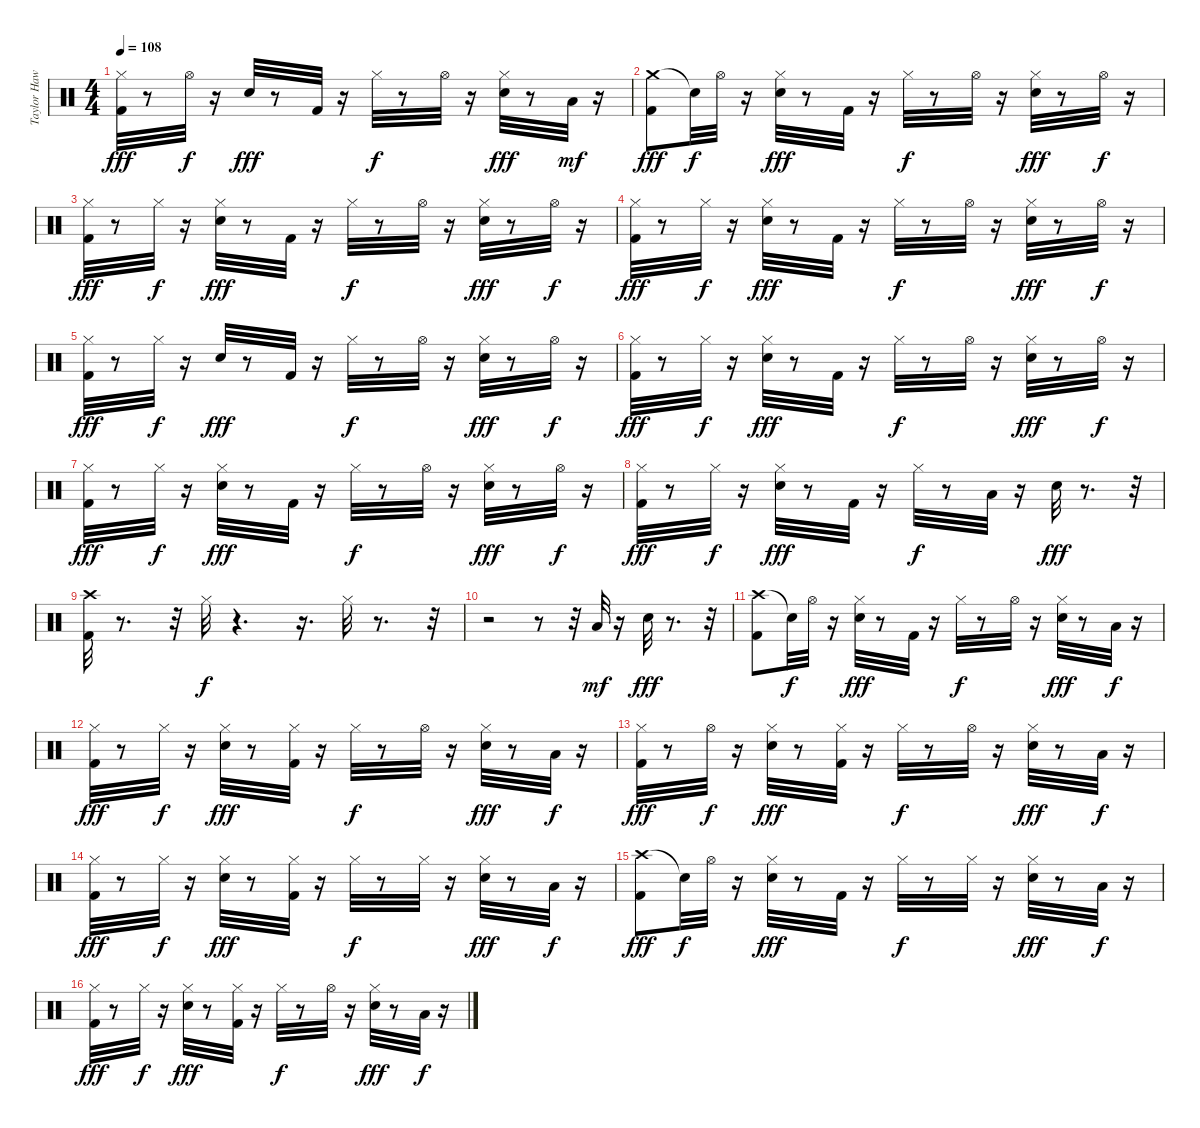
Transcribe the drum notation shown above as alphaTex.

\track ("Taylor Hawkins" "Taylor Haw") {instrument percussion}
\staff {score}
\articulation defaults
\ts (4 4)
\tempo 108
\clef neutral
\ks c
("Hi-Hat (closed)" "Kick (hit) 2").32{dy fff} r.8 "Hi-Hat (open)".32{dy f} r.16 "Snare (hit) 2".32{dy fff} r.8 "Kick (hit) 2".32 r.16 "Hi-Hat (closed)".32{dy f} r.8 "Hi-Hat (open)".32 r.16 ("Hi-Hat (closed)" "Snare (hit) 2").32{dy fff} r.8 "Low Floor Tom (hit)".32{dy mf} r.16 |
("Crash medium (hit)" "Kick (hit) 2").8{dy fff} "Snare (hit)"{t}.32{dy f} "Hi-Hat (open)".32 r.16 ("Hi-Hat (closed)" "Snare (hit) 2").32{dy fff} r.8 "Kick (hit) 2".32 r.16 "Hi-Hat (closed)".32{dy f} r.8 "Hi-Hat (open)".32 r.16 ("Hi-Hat (closed)" "Snare (hit) 2").32{dy fff} r.8 "Hi-Hat (open)".32{dy f} r.16 |
("Hi-Hat (closed)" "Kick (hit) 2").32{dy fff} r.8 "Hi-Hat (closed)".32{dy f} r.16 ("Hi-Hat (closed)" "Snare (hit) 2").32{dy fff} r.8 "Kick (hit) 2".32 r.16 "Hi-Hat (closed)".32{dy f} r.8 "Hi-Hat (open)".32 r.16 ("Hi-Hat (closed)" "Snare (hit) 2").32{dy fff} r.8 "Hi-Hat (open)".32{dy f} r.16 |
("Hi-Hat (closed)" "Kick (hit) 2").32{dy fff} r.8 "Hi-Hat (closed)".32{dy f} r.16 ("Hi-Hat (closed)" "Snare (hit) 2").32{dy fff} r.8 "Kick (hit) 2".32 r.16 "Hi-Hat (closed)".32{dy f} r.8 "Hi-Hat (open)".32 r.16 ("Hi-Hat (closed)" "Snare (hit) 2").32{dy fff} r.8 "Hi-Hat (open)".32{dy f} r.16 |
("Hi-Hat (closed)" "Kick (hit) 2").32{dy fff} r.8 "Hi-Hat (closed)".32{dy f} r.16 "Snare (hit) 2".32{dy fff} r.8 "Kick (hit) 2".32 r.16 "Hi-Hat (closed)".32{dy f} r.8 "Hi-Hat (open)".32 r.16 ("Hi-Hat (closed)" "Snare (hit) 2").32{dy fff} r.8 "Hi-Hat (open)".32{dy f} r.16 |
("Hi-Hat (closed)" "Kick (hit) 2").32{dy fff} r.8 "Hi-Hat (closed)".32{dy f} r.16 ("Hi-Hat (closed)" "Snare (hit) 2").32{dy fff} r.8 "Kick (hit) 2".32 r.16 "Hi-Hat (closed)".32{dy f} r.8 "Hi-Hat (open)".32 r.16 ("Hi-Hat (closed)" "Snare (hit) 2").32{dy fff} r.8 "Hi-Hat (open)".32{dy f} r.16 |
("Hi-Hat (closed)" "Kick (hit) 2").32{dy fff} r.8 "Hi-Hat (closed)".32{dy f} r.16 ("Hi-Hat (closed)" "Snare (hit) 2").32{dy fff} r.8 "Kick (hit) 2".32 r.16 "Hi-Hat (closed)".32{dy f} r.8 "Hi-Hat (open)".32 r.16 ("Hi-Hat (closed)" "Snare (hit) 2").32{dy fff} r.8 "Hi-Hat (open)".32{dy f} r.16 |
("Hi-Hat (closed)" "Kick (hit) 2").32{dy fff} r.8 "Hi-Hat (closed)".32{dy f} r.16 ("Hi-Hat (closed)" "Snare (hit) 2").32{dy fff} r.8 "Kick (hit) 2".32 r.16 "Hi-Hat (closed)".32{dy f} r.8 "Low Tom (hit)".32 r.16 "Snare (hit) 2".32{dy fff} r.8{d} r.32 |
("Crash high (hit)" "Kick (hit) 2").32 r.8{d} r.32 "Hi-Hat (closed)".32{dy f} r.4{d} r.16{d} "Hi-Hat (closed)".32 r.8{d} r.32 |
r.2 r.8 r.32 "Low Floor Tom (hit)".32{dy mf} r.16 "Snare (hit) 2".32{dy fff} r.8{d} r.32 |
("Crash high (hit)" "Kick (hit) 2").8 "Snare (hit)"{t}.32{dy f} "Hi-Hat (open)".32 r.16 ("Hi-Hat (closed)" "Snare (hit) 2").32{dy fff} r.8 "Kick (hit) 2".32 r.16 "Hi-Hat (closed)".32{dy f} r.8 "Hi-Hat (open)".32 r.16 ("Hi-Hat (closed)" "Snare (hit) 2").32{dy fff} r.8 "Low Tom (hit)".32{dy f} r.16 |
("Hi-Hat (closed)" "Kick (hit) 2").32{dy fff} r.8 "Hi-Hat (closed)".32{dy f} r.16 ("Hi-Hat (closed)" "Snare (hit) 2").32{dy fff} r.8 ("Hi-Hat (closed)" "Kick (hit) 2").32 r.16 "Hi-Hat (closed)".32{dy f} r.8 "Hi-Hat (open)".32 r.16 ("Hi-Hat (closed)" "Snare (hit) 2").32{dy fff} r.8 "Low Floor Tom (hit)".32{dy f} r.16 |
("Hi-Hat (closed)" "Kick (hit) 2").32{dy fff} r.8 "Hi-Hat (open)".32{dy f} r.16 ("Hi-Hat (closed)" "Snare (hit) 2").32{dy fff} r.8 ("Hi-Hat (closed)" "Kick (hit) 2").32 r.16 "Hi-Hat (closed)".32{dy f} r.8 "Hi-Hat (open)".32 r.16 ("Hi-Hat (closed)" "Snare (hit) 2").32{dy fff} r.8 "Low Tom (hit)".32{dy f} r.16 |
("Hi-Hat (closed)" "Kick (hit) 2").32{dy fff} r.8 "Hi-Hat (closed)".32{dy f} r.16 ("Hi-Hat (closed)" "Snare (hit) 2").32{dy fff} r.8 ("Hi-Hat (closed)" "Kick (hit) 2").32 r.16 "Hi-Hat (closed)".32{dy f} r.8 "Hi-Hat (closed)".32 r.16 ("Hi-Hat (closed)" "Snare (hit) 2").32{dy fff} r.8 "Low Floor Tom (hit)".32{dy f} r.16 |
("Crash high (hit)" "Kick (hit) 2").8{dy fff} "Snare (hit)"{t}.32{dy f} "Hi-Hat (open)".32 r.16 ("Hi-Hat (closed)" "Snare (hit) 2").32{dy fff} r.8 "Kick (hit) 2".32 r.16 "Hi-Hat (closed)".32{dy f} r.8 "Hi-Hat (closed)".32 r.16 ("Hi-Hat (closed)" "Snare (hit) 2").32{dy fff} r.8 "Low Tom (hit)".32{dy f} r.16 |
("Hi-Hat (closed)" "Kick (hit) 2").32{dy fff} r.8 "Hi-Hat (closed)".32{dy f} r.16 ("Hi-Hat (closed)" "Snare (hit) 2").32{dy fff} r.8 ("Hi-Hat (closed)" "Kick (hit) 2").32 r.16 "Hi-Hat (closed)".32{dy f} r.8 "Hi-Hat (open)".32 r.16 ("Hi-Hat (closed)" "Snare (hit) 2").32{dy fff} r.8 "Low Floor Tom (hit)".32{dy f} r.16
